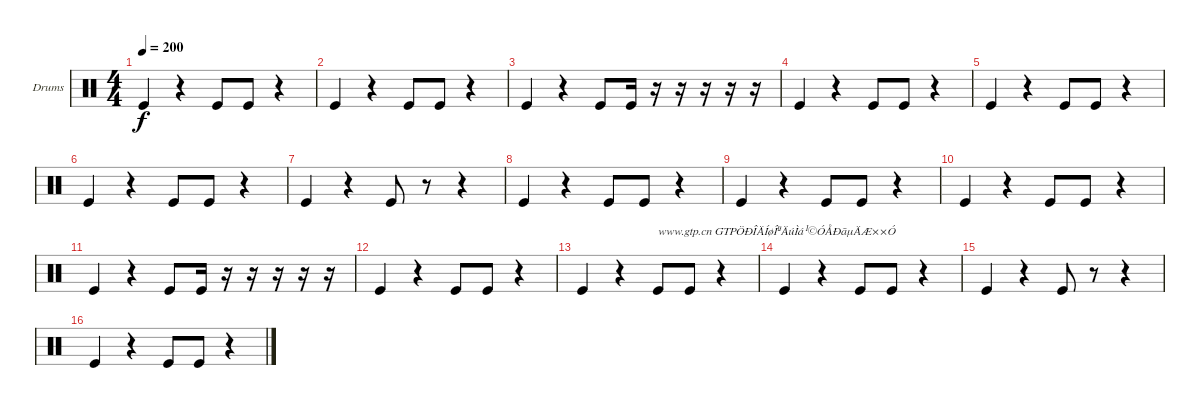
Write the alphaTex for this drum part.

\bracketExtendMode groupsimilarinstruments
\firstSystemTrackNameOrientation horizontal
\otherSystemsTrackNameOrientation horizontal
\track ("Drumkit" "Drums") {instrument percussion}
\staff {score}
\articulation defaults
\ts (4 4)
\tempo 200
\clef neutral
\ks c "Kick (hit)".4{dy f}
r.4 "Kick (hit)".8 "Kick (hit)".8 r.4 |
"Kick (hit)".4 r.4 "Kick (hit)".8 "Kick (hit)".8 r.4 |
"Kick (hit)".4 r.4 "Kick (hit)".8 "Kick (hit)".16 r.16 r.16 r.16 r.16 r.16 |
"Kick (hit)".4 r.4 "Kick (hit)".8 "Kick (hit)".8 r.4 |
"Kick (hit)".4 r.4 "Kick (hit)".8 "Kick (hit)".8 r.4 |
"Kick (hit)".4 r.4 "Kick (hit)".8 "Kick (hit)".8 r.4 |
"Kick (hit)".4 r.4 "Kick (hit)".8 r.8 r.4 |
"Kick (hit)".4 r.4 "Kick (hit)".8 "Kick (hit)".8 r.4 |
"Kick (hit)".4 r.4 "Kick (hit)".8 "Kick (hit)".8 r.4 |
"Kick (hit)".4 r.4 "Kick (hit)".8 "Kick (hit)".8 r.4 |
"Kick (hit)".4 r.4 "Kick (hit)".8 "Kick (hit)".16 r.16 r.16 r.16 r.16 r.16 |
"Kick (hit)".4 r.4 "Kick (hit)".8 "Kick (hit)".8 r.4 |
"Kick (hit)".4 r.4 "Kick (hit)".8{txt "www.gtp.cn GTPÖÐÎÄÍøÎªÄúÌá¹©ÓÅÐãµÄÆ××Ó"} "Kick (hit)".8 r.4 |
"Kick (hit)".4 r.4 "Kick (hit)".8 "Kick (hit)".8 r.4 |
"Kick (hit)".4 r.4 "Kick (hit)".8 r.8 r.4 |
"Kick (hit)".4 r.4 "Kick (hit)".8 "Kick (hit)".8 r.4
